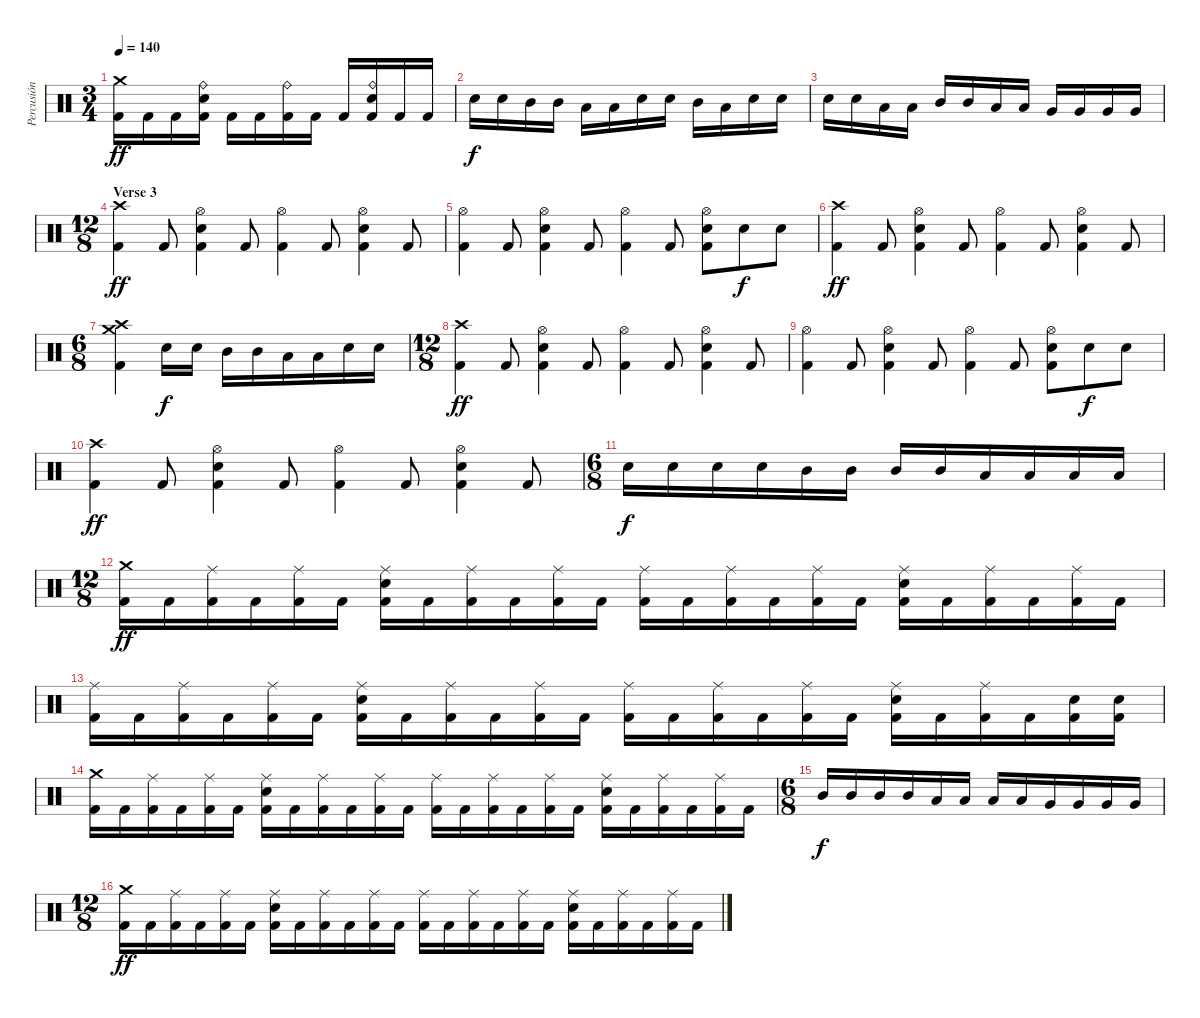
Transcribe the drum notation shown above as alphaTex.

\track ("Percusión" "Percusión") {instrument percussion}
\staff {score}
\articulation defaults
\ts (3 4)
\tempo 140
\clef neutral
\ks c
("Crash medium (hit)" "Kick (hit) 2").16{dy ff} "Kick (hit) 2".16 "Kick (hit) 2".16 ("Ride (bell)" "Electric Snare (hit)" "Kick (hit) 2").16 "Kick (hit) 2".16 "Kick (hit) 2".16 ("Ride (bell)" "Kick (hit) 2").16 "Kick (hit) 2".16 "Kick (hit) 2".16 ("Ride (bell)" "Electric Snare (hit)" "Kick (hit) 2").16 "Kick (hit) 2".16 "Kick (hit) 2".16 |
"Electric Snare (hit)".16{dy f} "Electric Snare (hit)".16 "Mid Tom (hit)".16 "Mid Tom (hit)".16 "Low Tom (hit)".16 "Low Tom (hit)".16 "Electric Snare (hit)".16 "Electric Snare (hit)".16 "Mid Tom (hit)".16 "Low Tom (hit)".16 "Electric Snare (hit)".16 "Electric Snare (hit)".16 |
"Electric Snare (hit)".16 "Electric Snare (hit)".16 "Low Tom (hit)".16 "Low Tom (hit)".16 "Mid Tom (hit)".16 "Mid Tom (hit)".16 "Low Tom (hit)".16 "Low Tom (hit)".16 "Very Low Tom (hit)".16 "Very Low Tom (hit)".16 "Very Low Tom (hit)".16 "Very Low Tom (hit)".16 |
\ts (12 8)
\section ("" "Verse 3")
("Crash high (hit)" "Kick (hit) 2").4{dy ff} "Kick (hit) 2".8 ("Hi-Hat (open)" "Electric Snare (hit)" "Kick (hit) 2").4 "Kick (hit) 2".8 ("Hi-Hat (open)" "Kick (hit) 2").4 "Kick (hit) 2".8 ("Hi-Hat (open)" "Electric Snare (hit)" "Kick (hit) 2").4 "Kick (hit) 2".8 |
("Hi-Hat (open)" "Kick (hit) 2").4 "Kick (hit) 2".8 ("Hi-Hat (open)" "Electric Snare (hit)" "Kick (hit) 2").4 "Kick (hit) 2".8 ("Hi-Hat (open)" "Kick (hit) 2").4 "Kick (hit) 2".8 ("Hi-Hat (open)" "Electric Snare (hit)" "Kick (hit) 2").8 "Electric Snare (hit)".8{dy f} "Electric Snare (hit)".8 |
("Crash high (hit)" "Kick (hit) 2").4{dy ff} "Kick (hit) 2".8 ("Hi-Hat (open)" "Electric Snare (hit)" "Kick (hit) 2").4 "Kick (hit) 2".8 ("Hi-Hat (open)" "Kick (hit) 2").4 "Kick (hit) 2".8 ("Hi-Hat (open)" "Electric Snare (hit)" "Kick (hit) 2").4 "Kick (hit) 2".8 |
\ts (6 8)
("Crash high (hit)" "Crash medium (hit)" "Kick (hit) 2").4 "Electric Snare (hit)".16{dy f} "Electric Snare (hit)".16 "Mid Tom (hit)".16 "Mid Tom (hit)".16 "Low Tom (hit)".16 "Low Tom (hit)".16 "Electric Snare (hit)".16 "Electric Snare (hit)".16 |
\ts (12 8)
("Crash high (hit)" "Kick (hit) 2").4{dy ff} "Kick (hit) 2".8 ("Hi-Hat (open)" "Electric Snare (hit)" "Kick (hit) 2").4 "Kick (hit) 2".8 ("Hi-Hat (open)" "Kick (hit) 2").4 "Kick (hit) 2".8 ("Hi-Hat (open)" "Electric Snare (hit)" "Kick (hit) 2").4 "Kick (hit) 2".8 |
("Hi-Hat (open)" "Kick (hit) 2").4 "Kick (hit) 2".8 ("Hi-Hat (open)" "Electric Snare (hit)" "Kick (hit) 2").4 "Kick (hit) 2".8 ("Hi-Hat (open)" "Kick (hit) 2").4 "Kick (hit) 2".8 ("Hi-Hat (open)" "Electric Snare (hit)" "Kick (hit) 2").8 "Electric Snare (hit)".8{dy f} "Electric Snare (hit)".8 |
("Crash high (hit)" "Kick (hit) 2").4{dy ff} "Kick (hit) 2".8 ("Hi-Hat (open)" "Electric Snare (hit)" "Kick (hit) 2").4 "Kick (hit) 2".8 ("Hi-Hat (open)" "Kick (hit) 2").4 "Kick (hit) 2".8 ("Hi-Hat (open)" "Electric Snare (hit)" "Kick (hit) 2").4 "Kick (hit) 2".8 |
\ts (6 8)
"Electric Snare (hit)".16{dy f} "Electric Snare (hit)".16 "Electric Snare (hit)".16 "Electric Snare (hit)".16 "Mid Tom (hit)".16 "Mid Tom (hit)".16 "Mid Tom (hit)".16 "Mid Tom (hit)".16 "Low Tom (hit)".16 "Low Tom (hit)".16 "Low Tom (hit)".16 "Low Tom (hit)".16 |
\ts (12 8)
("Crash medium (hit)" "Kick (hit) 2").16{dy ff} "Kick (hit) 2".16 ("Ride (middle)" "Kick (hit) 2").16 "Kick (hit) 2".16 ("Ride (middle)" "Kick (hit) 2").16 "Kick (hit) 2".16 ("Ride (middle)" "Electric Snare (hit)" "Kick (hit) 2").16 "Kick (hit) 2".16 ("Ride (middle)" "Kick (hit) 2").16 "Kick (hit) 2".16 ("Ride (middle)" "Kick (hit) 2").16 "Kick (hit) 2".16 ("Ride (middle)" "Kick (hit) 2").16 "Kick (hit) 2".16 ("Ride (middle)" "Kick (hit) 2").16 "Kick (hit) 2".16 ("Ride (middle)" "Kick (hit) 2").16 "Kick (hit) 2".16 ("Ride (middle)" "Electric Snare (hit)" "Kick (hit) 2").16 "Kick (hit) 2".16 ("Ride (middle)" "Kick (hit) 2").16 "Kick (hit) 2".16 ("Ride (middle)" "Kick (hit) 2").16 "Kick (hit) 2".16 |
("Ride (middle)" "Kick (hit) 2").16 "Kick (hit) 2".16 ("Ride (middle)" "Kick (hit) 2").16 "Kick (hit) 2".16 ("Ride (middle)" "Kick (hit) 2").16 "Kick (hit) 2".16 ("Ride (middle)" "Electric Snare (hit)" "Kick (hit) 2").16 "Kick (hit) 2".16 ("Ride (middle)" "Kick (hit) 2").16 "Kick (hit) 2".16 ("Ride (middle)" "Kick (hit) 2").16 "Kick (hit) 2".16 ("Ride (middle)" "Kick (hit) 2").16 "Kick (hit) 2".16 ("Ride (middle)" "Kick (hit) 2").16 "Kick (hit) 2".16 ("Ride (middle)" "Kick (hit) 2").16 "Kick (hit) 2".16 ("Ride (middle)" "Electric Snare (hit)" "Kick (hit) 2").16 "Kick (hit) 2".16 ("Ride (middle)" "Kick (hit) 2").16 "Kick (hit) 2".16 ("Electric Snare (hit)" "Kick (hit) 2").16 ("Electric Snare (hit)" "Kick (hit) 2").16 |
("Crash medium (hit)" "Kick (hit) 2").16 "Kick (hit) 2".16 ("Ride (middle)" "Kick (hit) 2").16 "Kick (hit) 2".16 ("Ride (middle)" "Kick (hit) 2").16 "Kick (hit) 2".16 ("Ride (middle)" "Electric Snare (hit)" "Kick (hit) 2").16 "Kick (hit) 2".16 ("Ride (middle)" "Kick (hit) 2").16 "Kick (hit) 2".16 ("Ride (middle)" "Kick (hit) 2").16 "Kick (hit) 2".16 ("Ride (middle)" "Kick (hit) 2").16 "Kick (hit) 2".16 ("Ride (middle)" "Kick (hit) 2").16 "Kick (hit) 2".16 ("Ride (middle)" "Kick (hit) 2").16 "Kick (hit) 2".16 ("Ride (middle)" "Electric Snare (hit)" "Kick (hit) 2").16 "Kick (hit) 2".16 ("Ride (middle)" "Kick (hit) 2").16 "Kick (hit) 2".16 ("Ride (middle)" "Kick (hit) 2").16 "Kick (hit) 2".16 |
\ts (6 8)
"Mid Tom (hit)".16{dy f} "Mid Tom (hit)".16 "Mid Tom (hit)".16 "Mid Tom (hit)".16 "Low Tom (hit)".16 "Low Tom (hit)".16 "Low Tom (hit)".16 "Low Tom (hit)".16 "Very Low Tom (hit)".16 "Very Low Tom (hit)".16 "Very Low Tom (hit)".16 "Very Low Tom (hit)".16 |
\ts (12 8)
("Crash medium (hit)" "Kick (hit) 2").16{dy ff} "Kick (hit) 2".16 ("Ride (middle)" "Kick (hit) 2").16 "Kick (hit) 2".16 ("Ride (middle)" "Kick (hit) 2").16 "Kick (hit) 2".16 ("Ride (middle)" "Electric Snare (hit)" "Kick (hit) 2").16 "Kick (hit) 2".16 ("Ride (middle)" "Kick (hit) 2").16 "Kick (hit) 2".16 ("Ride (middle)" "Kick (hit) 2").16 "Kick (hit) 2".16 ("Ride (middle)" "Kick (hit) 2").16 "Kick (hit) 2".16 ("Ride (middle)" "Kick (hit) 2").16 "Kick (hit) 2".16 ("Ride (middle)" "Kick (hit) 2").16 "Kick (hit) 2".16 ("Ride (middle)" "Electric Snare (hit)" "Kick (hit) 2").16 "Kick (hit) 2".16 ("Ride (middle)" "Kick (hit) 2").16 "Kick (hit) 2".16 ("Ride (middle)" "Kick (hit) 2").16 "Kick (hit) 2".16
